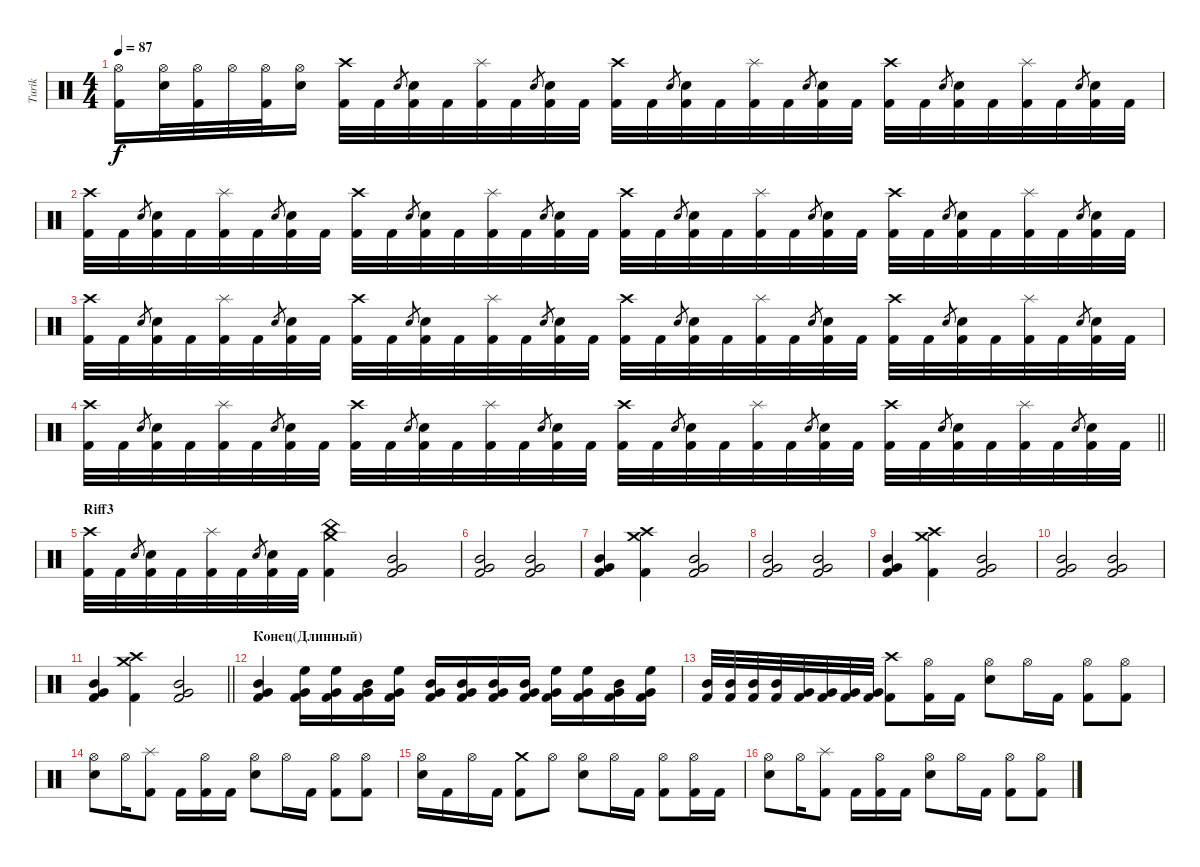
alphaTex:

\track ("Turik" "Turik") {instrument percussion}
\staff {score}
\articulation defaults
\ts (4 4)
\tempo 87
\clef neutral
\ks c
("Hi-Hat (open)" "Kick (hit) 2").16{dy f} ("Hi-Hat (open)" "Snare (hit) 2").32 ("Hi-Hat (open)" "Kick (hit) 2").32 "Hi-Hat (open)".32 ("Hi-Hat (open)" "Kick (hit) 2").32 ("Hi-Hat (open)" "Snare (hit) 2").16 ("Crash high (hit)" "Kick (hit) 2").32 "Kick (hit) 2".32 "Snare (hit) 2".8{gr} ("Snare (hit) 2" "Kick (hit) 2").32 "Kick (hit) 2".32 ("Splash (hit)" "Kick (hit) 2").32 "Kick (hit) 2".32 "Snare (hit) 2".8{gr} ("Snare (hit) 2" "Kick (hit) 2").32 "Kick (hit) 2".32 ("Crash high (hit)" "Kick (hit) 2").32 "Kick (hit) 2".32 "Snare (hit) 2".8{gr} ("Snare (hit) 2" "Kick (hit) 2").32 "Kick (hit) 2".32 ("Splash (hit)" "Kick (hit) 2").32 "Kick (hit) 2".32 "Snare (hit) 2".8{gr} ("Snare (hit) 2" "Kick (hit) 2").32 "Kick (hit) 2".32 ("Crash high (hit)" "Kick (hit) 2").32 "Kick (hit) 2".32 "Snare (hit) 2".8{gr} ("Snare (hit) 2" "Kick (hit) 2").32 "Kick (hit) 2".32 ("Splash (hit)" "Kick (hit) 2").32 "Kick (hit) 2".32 "Snare (hit) 2".8{gr} ("Snare (hit) 2" "Kick (hit) 2").32 "Kick (hit) 2".32 |
("Crash high (hit)" "Kick (hit) 2").32 "Kick (hit) 2".32 "Snare (hit) 2".8{gr} ("Snare (hit) 2" "Kick (hit) 2").32 "Kick (hit) 2".32 ("Splash (hit)" "Kick (hit) 2").32 "Kick (hit) 2".32 "Snare (hit) 2".8{gr} ("Snare (hit) 2" "Kick (hit) 2").32 "Kick (hit) 2".32 ("Crash high (hit)" "Kick (hit) 2").32 "Kick (hit) 2".32 "Snare (hit) 2".8{gr} ("Snare (hit) 2" "Kick (hit) 2").32 "Kick (hit) 2".32 ("Splash (hit)" "Kick (hit) 2").32 "Kick (hit) 2".32 "Snare (hit) 2".8{gr} ("Snare (hit) 2" "Kick (hit) 2").32 "Kick (hit) 2".32 ("Crash high (hit)" "Kick (hit) 2").32 "Kick (hit) 2".32 "Snare (hit) 2".8{gr} ("Snare (hit) 2" "Kick (hit) 2").32 "Kick (hit) 2".32 ("Splash (hit)" "Kick (hit) 2").32 "Kick (hit) 2".32 "Snare (hit) 2".8{gr} ("Snare (hit) 2" "Kick (hit) 2").32 "Kick (hit) 2".32 ("Crash high (hit)" "Kick (hit) 2").32 "Kick (hit) 2".32 "Snare (hit) 2".8{gr} ("Snare (hit) 2" "Kick (hit) 2").32 "Kick (hit) 2".32 ("Splash (hit)" "Kick (hit) 2").32 "Kick (hit) 2".32 "Snare (hit) 2".8{gr} ("Snare (hit) 2" "Kick (hit) 2").32 "Kick (hit) 2".32 |
("Crash high (hit)" "Kick (hit) 2").32 "Kick (hit) 2".32 "Snare (hit) 2".8{gr} ("Snare (hit) 2" "Kick (hit) 2").32 "Kick (hit) 2".32 ("Splash (hit)" "Kick (hit) 2").32 "Kick (hit) 2".32 "Snare (hit) 2".8{gr} ("Snare (hit) 2" "Kick (hit) 2").32 "Kick (hit) 2".32 ("Crash high (hit)" "Kick (hit) 2").32 "Kick (hit) 2".32 "Snare (hit) 2".8{gr} ("Snare (hit) 2" "Kick (hit) 2").32 "Kick (hit) 2".32 ("Splash (hit)" "Kick (hit) 2").32 "Kick (hit) 2".32 "Snare (hit) 2".8{gr} ("Snare (hit) 2" "Kick (hit) 2").32 "Kick (hit) 2".32 ("Crash high (hit)" "Kick (hit) 2").32 "Kick (hit) 2".32 "Snare (hit) 2".8{gr} ("Snare (hit) 2" "Kick (hit) 2").32 "Kick (hit) 2".32 ("Splash (hit)" "Kick (hit) 2").32 "Kick (hit) 2".32 "Snare (hit) 2".8{gr} ("Snare (hit) 2" "Kick (hit) 2").32 "Kick (hit) 2".32 ("Crash high (hit)" "Kick (hit) 2").32 "Kick (hit) 2".32 "Snare (hit) 2".8{gr} ("Snare (hit) 2" "Kick (hit) 2").32 "Kick (hit) 2".32 ("Splash (hit)" "Kick (hit) 2").32 "Kick (hit) 2".32 "Snare (hit) 2".8{gr} ("Snare (hit) 2" "Kick (hit) 2").32 "Kick (hit) 2".32 |
\barLineRight lightlight
("Crash high (hit)" "Kick (hit) 2").32 "Kick (hit) 2".32 "Snare (hit) 2".8{gr} ("Snare (hit) 2" "Kick (hit) 2").32 "Kick (hit) 2".32 ("Splash (hit)" "Kick (hit) 2").32 "Kick (hit) 2".32 "Snare (hit) 2".8{gr} ("Snare (hit) 2" "Kick (hit) 2").32 "Kick (hit) 2".32 ("Crash high (hit)" "Kick (hit) 2").32 "Kick (hit) 2".32 "Snare (hit) 2".8{gr} ("Snare (hit) 2" "Kick (hit) 2").32 "Kick (hit) 2".32 ("Splash (hit)" "Kick (hit) 2").32 "Kick (hit) 2".32 "Snare (hit) 2".8{gr} ("Snare (hit) 2" "Kick (hit) 2").32 "Kick (hit) 2".32 ("Crash high (hit)" "Kick (hit) 2").32 "Kick (hit) 2".32 "Snare (hit) 2".8{gr} ("Snare (hit) 2" "Kick (hit) 2").32 "Kick (hit) 2".32 ("Splash (hit)" "Kick (hit) 2").32 "Kick (hit) 2".32 "Snare (hit) 2".8{gr} ("Snare (hit) 2" "Kick (hit) 2").32 "Kick (hit) 2".32 ("Crash high (hit)" "Kick (hit) 2").32 "Kick (hit) 2".32 "Snare (hit) 2".8{gr} ("Snare (hit) 2" "Kick (hit) 2").32 "Kick (hit) 2".32 ("Splash (hit)" "Kick (hit) 2").32 "Kick (hit) 2".32 "Snare (hit) 2".8{gr} ("Snare (hit) 2" "Kick (hit) 2").32 "Kick (hit) 2".32 |
\section ("" "Riff3")
("Crash high (hit)" "Kick (hit) 2").32 "Kick (hit) 2".32 "Snare (hit) 2".8{gr} ("Snare (hit) 2" "Kick (hit) 2").32 "Kick (hit) 2".32 ("Splash (hit)" "Kick (hit) 2").32 "Kick (hit) 2".32 "Snare (hit) 2".8{gr} ("Snare (hit) 2" "Kick (hit) 2").32 "Kick (hit) 2".32 ("Crash medium (hit)" "China (hit)" "Kick (hit) 2").4 ("Mid Tom (hit)" "Very Low Tom (hit)" "Kick (hit) 2").2 |
("Mid Tom (hit)" "Very Low Tom (hit)" "Kick (hit) 2").2 ("Mid Tom (hit)" "Very Low Tom (hit)" "Kick (hit) 2").2 |
("Mid Tom (hit)" "Very Low Tom (hit)" "Kick (hit) 2").4 ("Crash high (hit)" "Crash medium (hit)" "Kick (hit) 2").4 ("Mid Tom (hit)" "Very Low Tom (hit)" "Kick (hit) 2").2 |
("Mid Tom (hit)" "Very Low Tom (hit)" "Kick (hit) 2").2 ("Mid Tom (hit)" "Very Low Tom (hit)" "Kick (hit) 2").2 |
("Mid Tom (hit)" "Very Low Tom (hit)" "Kick (hit) 2").4 ("Crash high (hit)" "Crash medium (hit)" "Kick (hit) 2").4 ("Mid Tom (hit)" "Very Low Tom (hit)" "Kick (hit) 2").2 |
("Mid Tom (hit)" "Very Low Tom (hit)" "Kick (hit) 2").2 ("Mid Tom (hit)" "Very Low Tom (hit)" "Kick (hit) 2").2 |
\barLineRight lightlight
("Mid Tom (hit)" "Very Low Tom (hit)" "Kick (hit) 2").4 ("Crash high (hit)" "Crash medium (hit)" "Kick (hit) 2").4 ("Mid Tom (hit)" "Very Low Tom (hit)" "Kick (hit) 2").2 |
\section ("" "Конец(Длинный)")
("Mid Tom (hit)" "Very Low Tom (hit)" "Kick (hit) 2").4 ("High Floor Tom (hit)" "Very Low Tom (hit)" "Kick (hit) 2").16 ("High Floor Tom (hit)" "Very Low Tom (hit)" "Kick (hit) 2").16 ("Mid Tom (hit)" "Very Low Tom (hit)" "Kick (hit) 2").16 ("High Floor Tom (hit)" "Very Low Tom (hit)" "Kick (hit) 2").16 ("Mid Tom (hit)" "Very Low Tom (hit)" "Kick (hit) 2").16 ("Mid Tom (hit)" "Very Low Tom (hit)" "Kick (hit) 2").16 ("Mid Tom (hit)" "Very Low Tom (hit)" "Kick (hit) 2").16 ("Mid Tom (hit)" "Very Low Tom (hit)" "Kick (hit) 2").16 ("High Floor Tom (hit)" "Very Low Tom (hit)" "Kick (hit) 2").16 ("High Floor Tom (hit)" "Very Low Tom (hit)" "Kick (hit) 2").16 ("Mid Tom (hit)" "Very Low Tom (hit)" "Kick (hit) 2").16 ("High Floor Tom (hit)" "Very Low Tom (hit)" "Kick (hit) 2").16 |
("Mid Tom (hit)" "Kick (hit) 2").32 ("Mid Tom (hit)" "Kick (hit) 2").32 ("Mid Tom (hit)" "Kick (hit) 2").32 ("Mid Tom (hit)" "Kick (hit) 2").32 ("Very Low Tom (hit)" "Kick (hit) 2").32 ("Very Low Tom (hit)" "Kick (hit) 2").32 ("Very Low Tom (hit)" "Kick (hit) 2").32 ("Very Low Tom (hit)" "Kick (hit) 2").32 ("Crash high (hit)" "Kick (hit) 2").8 ("Hi-Hat (open)" "Kick (hit) 2").16 "Kick (hit) 2".16 ("Hi-Hat (open)" "Snare (hit) 2").8 "Hi-Hat (open)".16 "Kick (hit) 2".16 ("Hi-Hat (open)" "Kick (hit) 2").8 ("Hi-Hat (open)" "Kick (hit) 2").8 |
("Hi-Hat (open)" "Snare (hit) 2").8 "Hi-Hat (open)".16 ("Splash (hit)" "Kick (hit) 2").8 "Kick (hit) 2".16 ("Hi-Hat (open)" "Kick (hit) 2").16 "Kick (hit) 2".16 ("Hi-Hat (open)" "Snare (hit) 2").8 "Hi-Hat (open)".16 "Kick (hit) 2".16 ("Hi-Hat (open)" "Kick (hit) 2").8 ("Hi-Hat (open)" "Kick (hit) 2").8 |
("Hi-Hat (open)" "Snare (hit) 2").16 "Kick (hit) 2".16 "Hi-Hat (open)".16 "Kick (hit) 2".16 ("Crash medium (hit)" "Kick (hit) 2").8 "Hi-Hat (open)".8 ("Hi-Hat (open)" "Snare (hit) 2").8 "Hi-Hat (open)".16 "Kick (hit) 2".16 ("Hi-Hat (open)" "Kick (hit) 2").8 ("Hi-Hat (open)" "Kick (hit) 2").16 "Kick (hit) 2".16 |
("Hi-Hat (open)" "Snare (hit) 2").8 "Hi-Hat (open)".16 ("Splash (hit)" "Kick (hit) 2").8 "Kick (hit) 2".16 ("Hi-Hat (open)" "Kick (hit) 2").16 "Kick (hit) 2".16 ("Hi-Hat (open)" "Snare (hit) 2").8 "Hi-Hat (open)".16 "Kick (hit) 2".16 ("Hi-Hat (open)" "Kick (hit) 2").8 ("Hi-Hat (open)" "Kick (hit) 2").8
